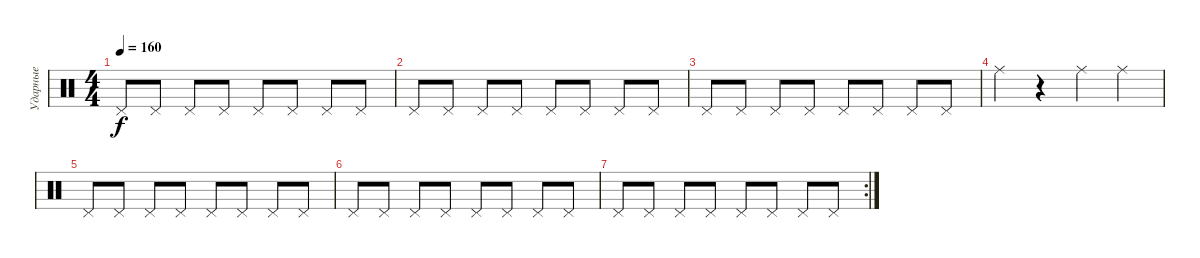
\track ("Ударные" "Ударные") {instrument percussion}
\staff {score}
\articulation defaults
\ts (4 4)
\tempo 160
\clef neutral
\ks c "Pedal Hi-Hat (hit)".8{dy f} "Pedal Hi-Hat (hit)".8 "Pedal Hi-Hat (hit)".8 "Pedal Hi-Hat (hit)".8 "Pedal Hi-Hat (hit)".8 "Pedal Hi-Hat (hit)".8 "Pedal Hi-Hat (hit)".8 "Pedal Hi-Hat (hit)".8
|
"Pedal Hi-Hat (hit)".8 "Pedal Hi-Hat (hit)".8 "Pedal Hi-Hat (hit)".8 "Pedal Hi-Hat (hit)".8 "Pedal Hi-Hat (hit)".8 "Pedal Hi-Hat (hit)".8 "Pedal Hi-Hat (hit)".8 "Pedal Hi-Hat (hit)".8 |
"Pedal Hi-Hat (hit)".8 "Pedal Hi-Hat (hit)".8 "Pedal Hi-Hat (hit)".8 "Pedal Hi-Hat (hit)".8 "Pedal Hi-Hat (hit)".8 "Pedal Hi-Hat (hit)".8 "Pedal Hi-Hat (hit)".8 "Pedal Hi-Hat (hit)".8 |
"Ride (middle)".4 r.4 "Ride (middle)".4 "Ride (middle)".4 |
"Pedal Hi-Hat (hit)".8 "Pedal Hi-Hat (hit)".8 "Pedal Hi-Hat (hit)".8 "Pedal Hi-Hat (hit)".8 "Pedal Hi-Hat (hit)".8 "Pedal Hi-Hat (hit)".8 "Pedal Hi-Hat (hit)".8 "Pedal Hi-Hat (hit)".8 |
"Pedal Hi-Hat (hit)".8 "Pedal Hi-Hat (hit)".8 "Pedal Hi-Hat (hit)".8 "Pedal Hi-Hat (hit)".8 "Pedal Hi-Hat (hit)".8 "Pedal Hi-Hat (hit)".8 "Pedal Hi-Hat (hit)".8 "Pedal Hi-Hat (hit)".8 |
\rc 2 "Pedal Hi-Hat (hit)".8 "Pedal Hi-Hat (hit)".8 "Pedal Hi-Hat (hit)".8 "Pedal Hi-Hat (hit)".8 "Pedal Hi-Hat (hit)".8 "Pedal Hi-Hat (hit)".8 "Pedal Hi-Hat (hit)".8 "Pedal Hi-Hat (hit)".8
